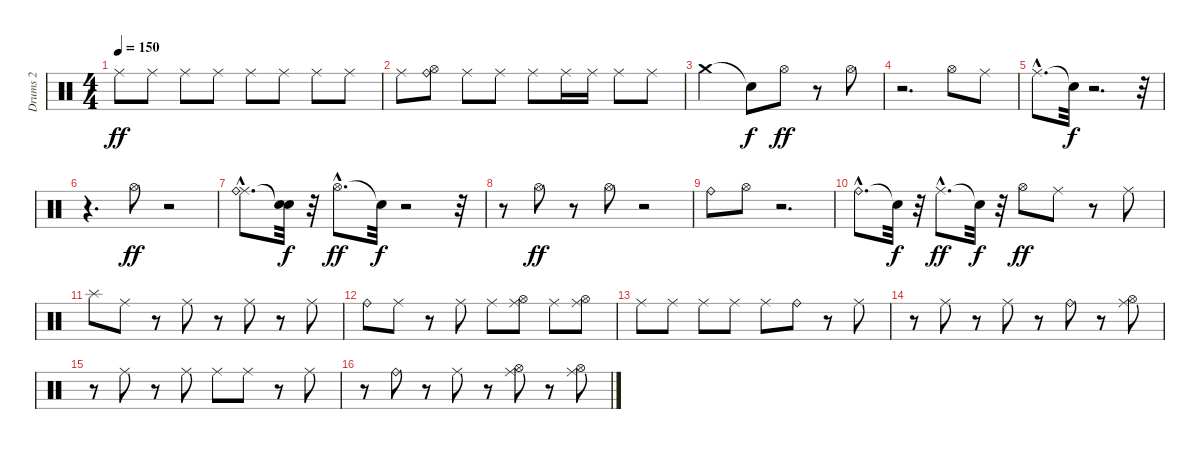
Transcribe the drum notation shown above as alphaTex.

\track ("Drums 2" "Drums 2") {instrument percussion}
\staff {score}
\articulation defaults
\ts (4 4)
\tempo 150
\clef neutral
\ks c "Ride (middle)".8{dy ff} "Ride (middle)".8 "Ride (middle)".8 "Ride (middle)".8 "Ride (middle)".8 "Ride (middle)".8 "Ride (middle)".8 "Ride (middle)".8
|
"Ride (middle)".8 ("Hi-Hat (open)" "Ride (bell)").8 "Ride (middle)".8 "Ride (middle)".8 "Ride (middle)".8 "Ride (middle)".16 "Ride (middle)".16 "Ride (middle)".8 "Ride (middle)".8 |
"Crash medium (hit)".2 "Snare (hit)"{t}.8{dy f} "Hi-Hat (open)".8{dy ff} r.8 "Hi-Hat (open)".8 |
r.2{d} "Hi-Hat (open)".8 "Ride (middle)".8 |
"Ride (middle)"{hac}.8{d} "Snare (hit)"{t}.32{dy f} r.2{d} r.32 |
r.4{d} "Hi-Hat (open)".8{dy ff} r.2 |
("Ride (middle)"{hac} "Ride (bell)"{hac}).8{d} ("Snare (hit)"{t} "Snare (hit)"{t}).32{dy f} r.32 "Hi-Hat (open)"{hac}.8{d dy ff} "Snare (hit)"{t}.32{dy f} r.2 r.32 |
r.8 "Hi-Hat (open)".8{dy ff} r.8 "Hi-Hat (open)".8 r.2 |
"Ride (bell)".8 "Hi-Hat (open)".8 r.2{d} |
"Ride (bell)"{hac}.8{d} "Snare (hit)"{t}.32{dy f} r.32 "Ride (middle)"{hac}.8{d dy ff} "Snare (hit)"{t}.32{dy f} r.32 "Hi-Hat (open)".8{dy ff} "Ride (middle)".8 r.8 "Ride (middle)".8 |
"Splash (hit)".8 "Ride (middle)".8 r.8 "Ride (middle)".8 r.8 "Ride (middle)".8 r.8 "Ride (middle)".8 |
"Ride (bell)".8 "Ride (middle)".8 r.8 "Ride (middle)".8 "Ride (middle)".8 ("Hi-Hat (open)" "Ride (middle)").8 "Ride (middle)".8 ("Hi-Hat (open)" "Ride (middle)").8 |
"Ride (middle)".8 "Ride (middle)".8 "Ride (middle)".8 "Ride (middle)".8 "Ride (middle)".8 "Ride (bell)".8 r.8 "Ride (middle)".8 |
r.8 "Ride (middle)".8 r.8 "Ride (middle)".8 r.8 "Ride (bell)".8 r.8 ("Hi-Hat (open)" "Ride (middle)").8 |
r.8 "Ride (middle)".8 r.8 "Ride (middle)".8 "Ride (middle)".8 "Ride (middle)".8 r.8 "Ride (middle)".8 |
r.8 "Ride (bell)".8 r.8 "Ride (middle)".8 r.8 ("Hi-Hat (open)" "Ride (middle)").8 r.8 ("Hi-Hat (open)" "Ride (middle)").8
